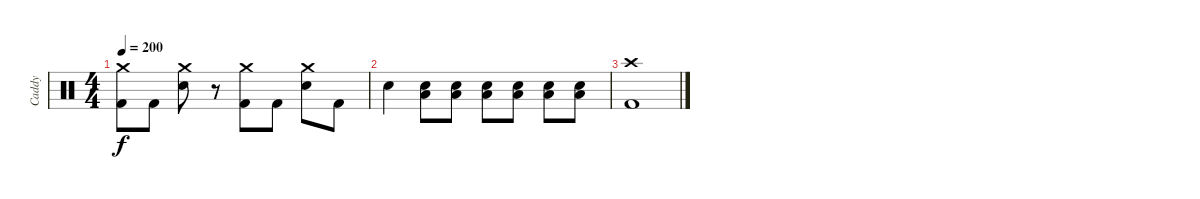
\track ("Caddy" "Caddy") {instrument percussion}
\staff {score}
\articulation defaults
\ts (4 4)
\tempo 200
\clef neutral
\ks c
("Crash medium (hit)" "Kick (hit) 2").8{dy f} "Kick (hit) 2".8 ("Crash medium (hit)" "Electric Snare (hit)").8 r.8 ("Crash medium (hit)" "Kick (hit) 2").8 "Kick (hit) 2".8 ("Crash medium (hit)" "Electric Snare (hit)").8 "Kick (hit) 2".8 |
"Electric Snare (hit)".4 ("Electric Snare (hit)" "Low Floor Tom (hit)").8 ("Electric Snare (hit)" "Low Floor Tom (hit)").8 ("Electric Snare (hit)" "Low Floor Tom (hit)").8 ("Electric Snare (hit)" "Low Floor Tom (hit)").8 ("Electric Snare (hit)" "Low Floor Tom (hit)").8 ("Electric Snare (hit)" "Low Floor Tom (hit)").8 |
("Crash high (hit)" "Kick (hit) 2").1
